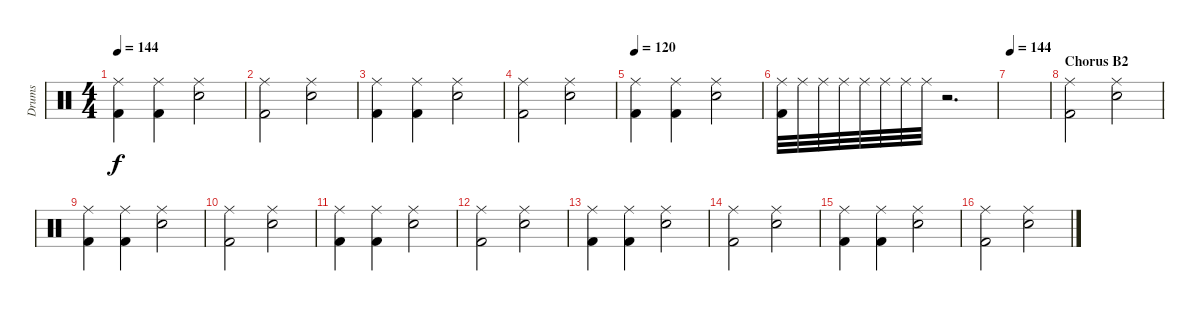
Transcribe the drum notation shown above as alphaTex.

\track ("Drums" "Drums") {instrument percussion}
\staff {score}
\articulation defaults
\ts (4 4)
\tempo 144
\clef neutral
\ks c
("Ride (middle)" "Kick (hit) 2").4{dy f} ("Ride (middle)" "Kick (hit) 2").4 ("Snare (hit) 2" "Ride (middle)").2 |
("Ride (middle)" "Kick (hit) 2").2 ("Snare (hit) 2" "Ride (middle)").2 |
("Ride (middle)" "Kick (hit) 2").4 ("Ride (middle)" "Kick (hit) 2").4 ("Snare (hit) 2" "Ride (middle)").2 |
("Ride (middle)" "Kick (hit) 2").2 ("Snare (hit) 2" "Ride (middle)").2 |
\tempo 120
("Ride (middle)" "Kick (hit) 2").4 ("Ride (middle)" "Kick (hit) 2").4 ("Snare (hit) 2" "Ride (middle)").2 |
("Ride (middle)" "Kick (hit) 2").32 "Ride (middle)".32 "Ride (middle)".32 "Ride (middle)".32 "Ride (middle)".32 "Ride (middle)".32 "Ride (middle)".32 "Ride (middle)".32 r.2{d} |
\tempo 144
|
\section ("" "Chorus B2")
("Ride (middle)" "Kick (hit) 2").2 ("Snare (hit) 2" "Ride (middle)").2 |
("Ride (middle)" "Kick (hit) 2").4 ("Ride (middle)" "Kick (hit) 2").4 ("Snare (hit) 2" "Ride (middle)").2 |
("Ride (middle)" "Kick (hit) 2").2 ("Snare (hit) 2" "Ride (middle)").2 |
("Ride (middle)" "Kick (hit) 2").4 ("Ride (middle)" "Kick (hit) 2").4 ("Snare (hit) 2" "Ride (middle)").2 |
("Ride (middle)" "Kick (hit) 2").2 ("Snare (hit) 2" "Ride (middle)").2 |
("Ride (middle)" "Kick (hit) 2").4 ("Ride (middle)" "Kick (hit) 2").4 ("Snare (hit) 2" "Ride (middle)").2 |
("Ride (middle)" "Kick (hit) 2").2 ("Snare (hit) 2" "Ride (middle)").2 |
("Ride (middle)" "Kick (hit) 2").4 ("Ride (middle)" "Kick (hit) 2").4 ("Snare (hit) 2" "Ride (middle)").2 |
("Ride (middle)" "Kick (hit) 2").2 ("Snare (hit) 2" "Ride (middle)").2
